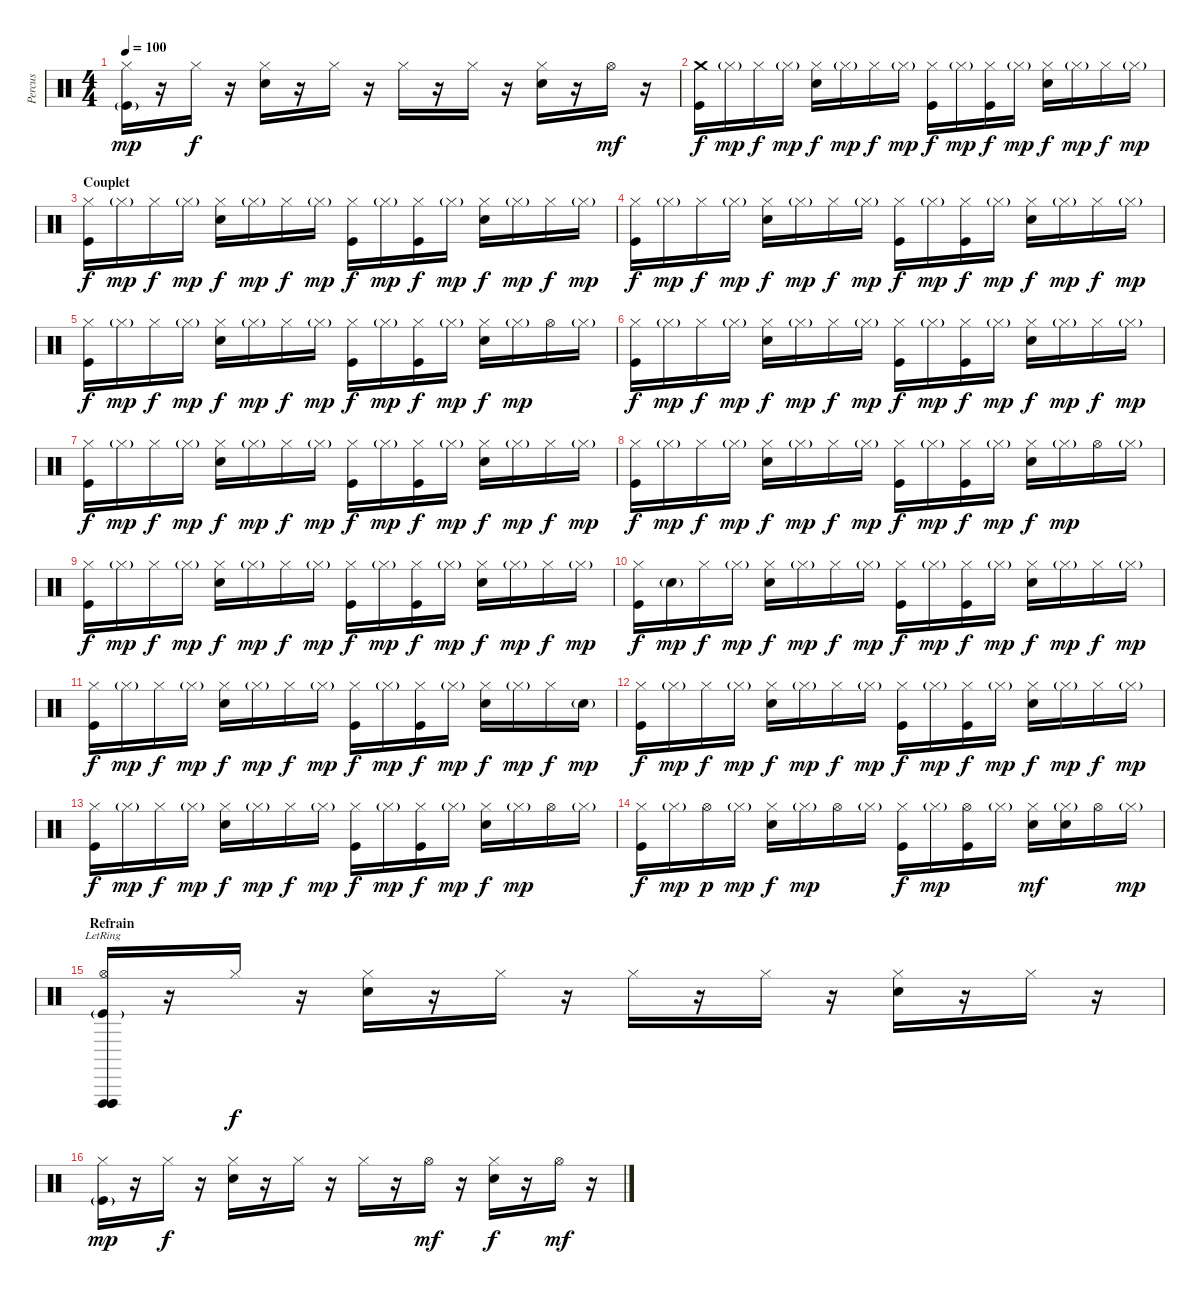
\track ("Percus" "Percus") {instrument percussion}
\staff {score}
\articulation defaults
\ts (4 4)
\tempo 100
\clef neutral
\ks c
("Hi-Hat (closed)" "Kick (hit)"{g}).16{dy mp} r.16 "Hi-Hat (closed)".16{dy f} r.16 ("Hi-Hat (closed)" "Electric Snare (hit)").16 r.16 "Hi-Hat (closed)".16 r.16 "Hi-Hat (closed)".16 r.16 "Hi-Hat (closed)".16 r.16 ("Hi-Hat (closed)" "Electric Snare (hit)").16 r.16 "Hi-Hat (open)".16{dy mf} r.16 |
("Crash medium (hit)" "Kick (hit)").16{dy f} "Hi-Hat (closed)"{g}.16{dy mp} "Hi-Hat (closed)".16{dy f} "Hi-Hat (closed)"{g}.16{dy mp} ("Hi-Hat (closed)" "Snare (hit) 2").16{dy f} "Hi-Hat (closed)"{g}.16{dy mp} "Hi-Hat (closed)".16{dy f} "Hi-Hat (closed)"{g}.16{dy mp} ("Hi-Hat (closed)" "Kick (hit)").16{dy f} "Hi-Hat (closed)"{g}.16{dy mp} ("Hi-Hat (closed)" "Kick (hit)").16{dy f} "Hi-Hat (closed)"{g}.16{dy mp} ("Hi-Hat (closed)" "Snare (hit) 2").16{dy f} "Hi-Hat (closed)"{g}.16{dy mp} "Hi-Hat (closed)".16{dy f} "Hi-Hat (closed)"{g}.16{dy mp} |
\section ("" "Couplet")
("Hi-Hat (closed)" "Kick (hit)").16{dy f} "Hi-Hat (closed)"{g}.16{dy mp} "Hi-Hat (closed)".16{dy f} "Hi-Hat (closed)"{g}.16{dy mp} ("Hi-Hat (closed)" "Snare (hit) 2").16{dy f} "Hi-Hat (closed)"{g}.16{dy mp} "Hi-Hat (closed)".16{dy f} "Hi-Hat (closed)"{g}.16{dy mp} ("Hi-Hat (closed)" "Kick (hit)").16{dy f} "Hi-Hat (closed)"{g}.16{dy mp} ("Hi-Hat (closed)" "Kick (hit)").16{dy f} "Hi-Hat (closed)"{g}.16{dy mp} ("Hi-Hat (closed)" "Snare (hit) 2").16{dy f} "Hi-Hat (closed)"{g}.16{dy mp} "Hi-Hat (closed)".16{dy f} "Hi-Hat (closed)"{g}.16{dy mp} |
("Hi-Hat (closed)" "Kick (hit)").16{dy f} "Hi-Hat (closed)"{g}.16{dy mp} "Hi-Hat (closed)".16{dy f} "Hi-Hat (closed)"{g}.16{dy mp} ("Hi-Hat (closed)" "Snare (hit) 2").16{dy f} "Hi-Hat (closed)"{g}.16{dy mp} "Hi-Hat (closed)".16{dy f} "Hi-Hat (closed)"{g}.16{dy mp} ("Hi-Hat (closed)" "Kick (hit)").16{dy f} "Hi-Hat (closed)"{g}.16{dy mp} ("Hi-Hat (closed)" "Kick (hit)").16{dy f} "Hi-Hat (closed)"{g}.16{dy mp} ("Hi-Hat (closed)" "Snare (hit) 2").16{dy f} "Hi-Hat (closed)"{g}.16{dy mp} "Hi-Hat (closed)".16{dy f} "Hi-Hat (closed)"{g}.16{dy mp} |
("Hi-Hat (closed)" "Kick (hit)").16{dy f} "Hi-Hat (closed)"{g}.16{dy mp} "Hi-Hat (closed)".16{dy f} "Hi-Hat (closed)"{g}.16{dy mp} ("Hi-Hat (closed)" "Snare (hit) 2").16{dy f} "Hi-Hat (closed)"{g}.16{dy mp} "Hi-Hat (closed)".16{dy f} "Hi-Hat (closed)"{g}.16{dy mp} ("Hi-Hat (closed)" "Kick (hit)").16{dy f} "Hi-Hat (closed)"{g}.16{dy mp} ("Hi-Hat (closed)" "Kick (hit)").16{dy f} "Hi-Hat (closed)"{g}.16{dy mp} ("Hi-Hat (closed)" "Snare (hit) 2").16{dy f} "Hi-Hat (closed)"{g}.16{dy mp} "Hi-Hat (open)".16 "Hi-Hat (closed)"{g}.16 |
("Hi-Hat (closed)" "Kick (hit)").16{dy f} "Hi-Hat (closed)"{g}.16{dy mp} "Hi-Hat (closed)".16{dy f} "Hi-Hat (closed)"{g}.16{dy mp} ("Hi-Hat (closed)" "Snare (hit) 2").16{dy f} "Hi-Hat (closed)"{g}.16{dy mp} "Hi-Hat (closed)".16{dy f} "Hi-Hat (closed)"{g}.16{dy mp} ("Hi-Hat (closed)" "Kick (hit)").16{dy f} "Hi-Hat (closed)"{g}.16{dy mp} ("Hi-Hat (closed)" "Kick (hit)").16{dy f} "Hi-Hat (closed)"{g}.16{dy mp} ("Hi-Hat (closed)" "Snare (hit) 2").16{dy f} "Hi-Hat (closed)"{g}.16{dy mp} "Hi-Hat (closed)".16{dy f} "Hi-Hat (closed)"{g}.16{dy mp} |
("Hi-Hat (closed)" "Kick (hit)").16{dy f} "Hi-Hat (closed)"{g}.16{dy mp} "Hi-Hat (closed)".16{dy f} "Hi-Hat (closed)"{g}.16{dy mp} ("Hi-Hat (closed)" "Snare (hit) 2").16{dy f} "Hi-Hat (closed)"{g}.16{dy mp} "Hi-Hat (closed)".16{dy f} "Hi-Hat (closed)"{g}.16{dy mp} ("Hi-Hat (closed)" "Kick (hit)").16{dy f} "Hi-Hat (closed)"{g}.16{dy mp} ("Hi-Hat (closed)" "Kick (hit)").16{dy f} "Hi-Hat (closed)"{g}.16{dy mp} ("Hi-Hat (closed)" "Snare (hit) 2").16{dy f} "Hi-Hat (closed)"{g}.16{dy mp} "Hi-Hat (closed)".16{dy f} "Hi-Hat (closed)"{g}.16{dy mp} |
("Hi-Hat (closed)" "Kick (hit)").16{dy f} "Hi-Hat (closed)"{g}.16{dy mp} "Hi-Hat (closed)".16{dy f} "Hi-Hat (closed)"{g}.16{dy mp} ("Hi-Hat (closed)" "Snare (hit) 2").16{dy f} "Hi-Hat (closed)"{g}.16{dy mp} "Hi-Hat (closed)".16{dy f} "Hi-Hat (closed)"{g}.16{dy mp} ("Hi-Hat (closed)" "Kick (hit)").16{dy f} "Hi-Hat (closed)"{g}.16{dy mp} ("Hi-Hat (closed)" "Kick (hit)").16{dy f} "Hi-Hat (closed)"{g}.16{dy mp} ("Hi-Hat (closed)" "Snare (hit) 2").16{dy f} "Hi-Hat (closed)"{g}.16{dy mp} "Hi-Hat (open)".16 "Hi-Hat (closed)"{g}.16 |
("Hi-Hat (closed)" "Kick (hit)").16{dy f} "Hi-Hat (closed)"{g}.16{dy mp} "Hi-Hat (closed)".16{dy f} "Hi-Hat (closed)"{g}.16{dy mp} ("Hi-Hat (closed)" "Snare (hit) 2").16{dy f} "Hi-Hat (closed)"{g}.16{dy mp} "Hi-Hat (closed)".16{dy f} "Hi-Hat (closed)"{g}.16{dy mp} ("Hi-Hat (closed)" "Kick (hit)").16{dy f} "Hi-Hat (closed)"{g}.16{dy mp} ("Hi-Hat (closed)" "Kick (hit)").16{dy f} "Hi-Hat (closed)"{g}.16{dy mp} ("Hi-Hat (closed)" "Snare (hit) 2").16{dy f} "Hi-Hat (closed)"{g}.16{dy mp} "Hi-Hat (closed)".16{dy f} "Hi-Hat (closed)"{g}.16{dy mp} |
("Hi-Hat (closed)" "Kick (hit)").16{dy f} "Snare (hit)"{g}.16{dy mp} "Hi-Hat (closed)".16{dy f} "Hi-Hat (closed)"{g}.16{dy mp} ("Hi-Hat (closed)" "Snare (hit) 2").16{dy f} "Hi-Hat (closed)"{g}.16{dy mp} "Hi-Hat (closed)".16{dy f} "Hi-Hat (closed)"{g}.16{dy mp} ("Hi-Hat (closed)" "Kick (hit)").16{dy f} "Hi-Hat (closed)"{g}.16{dy mp} ("Hi-Hat (closed)" "Kick (hit)").16{dy f} "Hi-Hat (closed)"{g}.16{dy mp} ("Hi-Hat (closed)" "Snare (hit) 2").16{dy f} "Hi-Hat (closed)"{g}.16{dy mp} "Hi-Hat (closed)".16{dy f} "Hi-Hat (closed)"{g}.16{dy mp} |
("Hi-Hat (closed)" "Kick (hit)").16{dy f} "Hi-Hat (closed)"{g}.16{dy mp} "Hi-Hat (closed)".16{dy f} "Hi-Hat (closed)"{g}.16{dy mp} ("Hi-Hat (closed)" "Snare (hit) 2").16{dy f} "Hi-Hat (closed)"{g}.16{dy mp} "Hi-Hat (closed)".16{dy f} "Hi-Hat (closed)"{g}.16{dy mp} ("Hi-Hat (closed)" "Kick (hit)").16{dy f} "Hi-Hat (closed)"{g}.16{dy mp} ("Hi-Hat (closed)" "Kick (hit)").16{dy f} "Hi-Hat (closed)"{g}.16{dy mp} ("Hi-Hat (closed)" "Snare (hit) 2").16{dy f} "Hi-Hat (closed)"{g}.16{dy mp} "Hi-Hat (closed)".16{dy f} "Snare (hit)"{g}.16{dy mp} |
("Hi-Hat (closed)" "Kick (hit)").16{dy f} "Hi-Hat (closed)"{g}.16{dy mp} "Hi-Hat (closed)".16{dy f} "Hi-Hat (closed)"{g}.16{dy mp} ("Hi-Hat (closed)" "Snare (hit) 2").16{dy f} "Hi-Hat (closed)"{g}.16{dy mp} "Hi-Hat (closed)".16{dy f} "Hi-Hat (closed)"{g}.16{dy mp} ("Hi-Hat (closed)" "Kick (hit)").16{dy f} "Hi-Hat (closed)"{g}.16{dy mp} ("Hi-Hat (closed)" "Kick (hit)").16{dy f} "Hi-Hat (closed)"{g}.16{dy mp} ("Hi-Hat (closed)" "Snare (hit) 2").16{dy f} "Hi-Hat (closed)"{g}.16{dy mp} "Hi-Hat (closed)".16{dy f} "Hi-Hat (closed)"{g}.16{dy mp} |
("Hi-Hat (closed)" "Kick (hit)").16{dy f} "Hi-Hat (closed)"{g}.16{dy mp} "Hi-Hat (closed)".16{dy f} "Hi-Hat (closed)"{g}.16{dy mp} ("Hi-Hat (closed)" "Snare (hit) 2").16{dy f} "Hi-Hat (closed)"{g}.16{dy mp} "Hi-Hat (closed)".16{dy f} "Hi-Hat (closed)"{g}.16{dy mp} ("Hi-Hat (closed)" "Kick (hit)").16{dy f} "Hi-Hat (closed)"{g}.16{dy mp} ("Hi-Hat (closed)" "Kick (hit)").16{dy f} "Hi-Hat (closed)"{g}.16{dy mp} ("Hi-Hat (closed)" "Snare (hit) 2").16{dy f} "Hi-Hat (closed)"{g}.16{dy mp} "Hi-Hat (open)".16 "Hi-Hat (closed)"{g}.16 |
("Hi-Hat (closed)" "Kick (hit)").16{dy f} "Hi-Hat (closed)"{g}.16{dy mp} "Hi-Hat (open)".16{dy p} "Hi-Hat (closed)"{g}.16{dy mp} ("Hi-Hat (closed)" "Snare (hit) 2").16{dy f} "Hi-Hat (closed)"{g}.16{dy mp} "Hi-Hat (open)".16 "Hi-Hat (closed)"{g}.16 ("Hi-Hat (closed)" "Kick (hit)").16{dy f} "Hi-Hat (closed)"{g}.16{dy mp} ("Hi-Hat (open)" "Kick (hit)").16 "Hi-Hat (closed)"{g}.16 ("Hi-Hat (closed)" "Electric Snare (hit)").16{dy mf} ("Hi-Hat (closed)"{g} "Electric Snare (hit)").16 "Hi-Hat (open)".16 "Hi-Hat (closed)"{g}.16{dy mp} |
\section ("" "Refrain")
("Hi-Hat (open)" "Vibraslap (hit)"{lr} "Vibraslap (hit)"{lr} "Vibraslap (hit)"{lr} "Kick (hit)"{g}).16 r.16 "Hi-Hat (closed)".16{dy f} r.16 ("Hi-Hat (closed)" "Electric Snare (hit)").16 r.16 "Hi-Hat (closed)".16 r.16 "Hi-Hat (closed)".16 r.16 "Hi-Hat (closed)".16 r.16 ("Hi-Hat (closed)" "Electric Snare (hit)").16 r.16 "Hi-Hat (closed)".16 r.16 |
("Hi-Hat (closed)" "Kick (hit)"{g}).16{dy mp} r.16 "Hi-Hat (closed)".16{dy f} r.16 ("Hi-Hat (closed)" "Electric Snare (hit)").16 r.16 "Hi-Hat (closed)".16 r.16 "Hi-Hat (closed)".16 r.16 "Hi-Hat (open)".16{dy mf} r.16 ("Hi-Hat (closed)" "Electric Snare (hit)").16{dy f} r.16 "Hi-Hat (open)".16{dy mf} r.16
